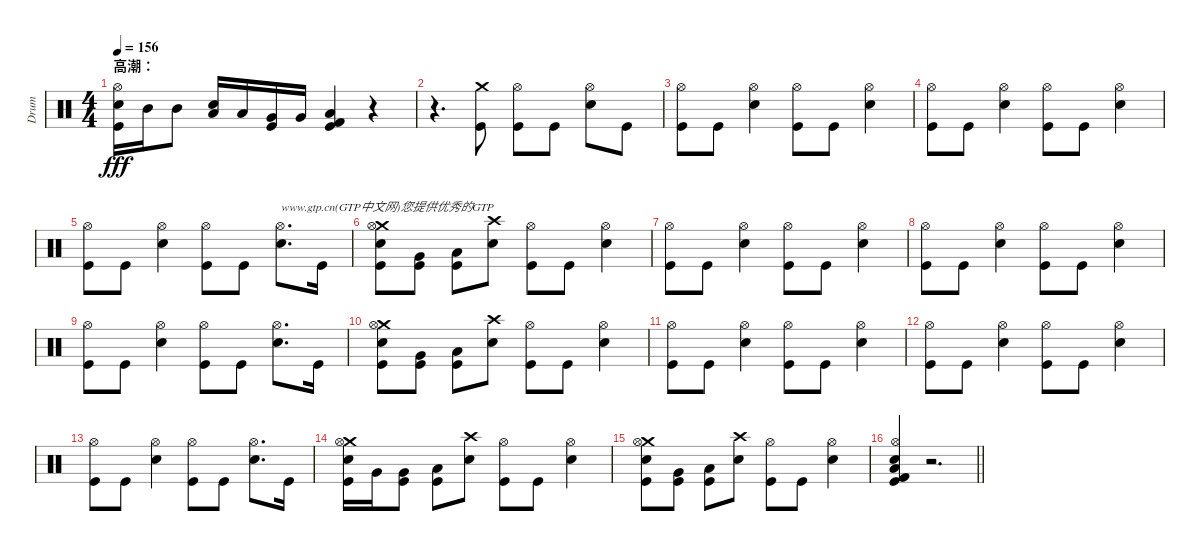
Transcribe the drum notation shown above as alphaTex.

\track ("Drum" "Drum") {instrument percussion}
\staff {score}
\articulation defaults
\ts (4 4)
\section ("" "高潮：")
\tempo 156
\clef neutral
\ks c
("Metronome (bell)" "Kick (hit)" "Hi-Hat (open)").16{dy fff} "Mid Tom (hit)".16 "Mid Tom (hit)".8 ("Metronome (bell)" "Low Tom (hit)").16 "Low Tom (hit)".16 ("Very Low Tom (hit)" "Kick (hit)").16 "Very Low Tom (hit)".16 ("Low Floor Tom (hit)" "Kick (hit) 2" "Kick (hit)").4 r.4 |
r.4{d} ("Kick (hit)" "Crash medium (hit)").8 ("Kick (hit)" "Hi-Hat (open)").8 "Kick (hit)".8 ("Metronome (bell)" "Hi-Hat (open)").8 "Kick (hit)".8 |
("Hi-Hat (open)" "Kick (hit)").8 "Kick (hit)".8 ("Metronome (bell)" "Hi-Hat (open)").4 ("Kick (hit)" "Hi-Hat (open)").8 "Kick (hit)".8 ("Hi-Hat (open)" "Metronome (bell)").4 |
("Hi-Hat (open)" "Kick (hit)").8 "Kick (hit)".8 ("Hi-Hat (open)" "Metronome (bell)").4 ("Hi-Hat (open)" "Kick (hit)").8 "Kick (hit)".8 ("Hi-Hat (open)" "Metronome (bell)").4 |
("Hi-Hat (open)" "Kick (hit)").8 "Kick (hit)".8 ("Hi-Hat (open)" "Metronome (bell)").4 ("Hi-Hat (open)" "Kick (hit)").8 "Kick (hit)".8 ("Metronome (bell)" "Hi-Hat (open)").8{d txt "www.gtp.cn(GTP中文网)您提供优秀的GTP"} "Kick (hit)".16 |
("Crash medium (hit)" "Metronome (bell)" "Kick (hit)" "Hi-Hat (open)").8 ("Very Low Tom (hit)" "Kick (hit)").8 ("Low Floor Tom (hit)" "Kick (hit)").8 ("Metronome (bell)" "Crash high (hit)").8 ("Kick (hit)" "Hi-Hat (open)").8 "Kick (hit)".8 ("Hi-Hat (open)" "Metronome (bell)").4 |
("Hi-Hat (open)" "Kick (hit)").8 "Kick (hit)".8 ("Metronome (bell)" "Hi-Hat (open)").4 ("Kick (hit)" "Hi-Hat (open)").8 "Kick (hit)".8 ("Hi-Hat (open)" "Metronome (bell)").4 |
("Hi-Hat (open)" "Kick (hit)").8 "Kick (hit)".8 ("Hi-Hat (open)" "Metronome (bell)").4 ("Hi-Hat (open)" "Kick (hit)").8 "Kick (hit)".8 ("Hi-Hat (open)" "Metronome (bell)").4 |
("Hi-Hat (open)" "Kick (hit)").8 "Kick (hit)".8 ("Hi-Hat (open)" "Metronome (bell)").4 ("Hi-Hat (open)" "Kick (hit)").8 "Kick (hit)".8 ("Metronome (bell)" "Hi-Hat (open)").8{d} "Kick (hit)".16 |
("Crash medium (hit)" "Metronome (bell)" "Kick (hit)" "Hi-Hat (open)").8 ("Very Low Tom (hit)" "Kick (hit)").8 ("Low Floor Tom (hit)" "Kick (hit)").8 ("Metronome (bell)" "Crash high (hit)").8 ("Kick (hit)" "Hi-Hat (open)").8 "Kick (hit)".8 ("Hi-Hat (open)" "Metronome (bell)").4 |
("Hi-Hat (open)" "Kick (hit)").8 "Kick (hit)".8 ("Metronome (bell)" "Hi-Hat (open)").4 ("Kick (hit)" "Hi-Hat (open)").8 "Kick (hit)".8 ("Hi-Hat (open)" "Metronome (bell)").4 |
("Hi-Hat (open)" "Kick (hit)").8 "Kick (hit)".8 ("Hi-Hat (open)" "Metronome (bell)").4 ("Hi-Hat (open)" "Kick (hit)").8 "Kick (hit)".8 ("Hi-Hat (open)" "Metronome (bell)").4 |
("Hi-Hat (open)" "Kick (hit)").8 "Kick (hit)".8 ("Hi-Hat (open)" "Metronome (bell)").4 ("Hi-Hat (open)" "Kick (hit)").8 "Kick (hit)".8 ("Metronome (bell)" "Hi-Hat (open)").8{d} "Kick (hit)".16 |
("Crash medium (hit)" "Metronome (bell)" "Kick (hit)" "Hi-Hat (open)").16 "Very Low Tom (hit)".16 ("Very Low Tom (hit)" "Kick (hit)").8 ("Low Floor Tom (hit)" "Kick (hit)").8 ("Metronome (bell)" "Crash high (hit)").8 ("Kick (hit)" "Hi-Hat (open)").8 "Kick (hit)".8 ("Hi-Hat (open)" "Metronome (bell)").4 |
("Crash medium (hit)" "Metronome (bell)" "Kick (hit)" "Hi-Hat (open)").8 ("Very Low Tom (hit)" "Kick (hit)").8 ("Low Floor Tom (hit)" "Kick (hit)").8 ("Metronome (bell)" "Crash high (hit)").8 ("Kick (hit)" "Hi-Hat (open)").8 "Kick (hit)".8 ("Hi-Hat (open)" "Metronome (bell)").4 |
\barLineRight lightlight
("Metronome (bell)" "Kick (hit) 2" "Kick (hit)" "Hi-Hat (open)" "Low Floor Tom (hit)").4 r.2{d}
